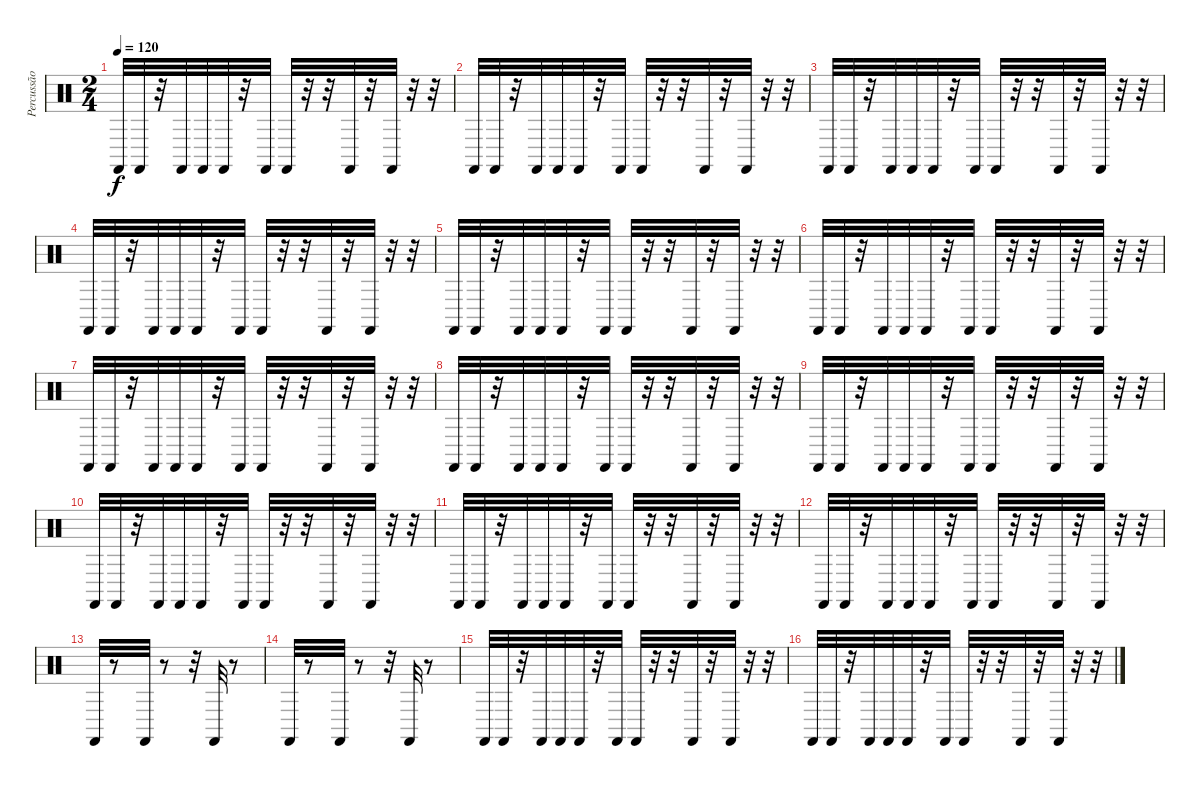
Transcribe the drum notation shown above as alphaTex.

\track ("Percussão" "Percussão") {instrument percussion}
\staff {score}
\articulation defaults
\ts (2 4)
\tempo 120
\clef neutral
\ks c "Castanets (hit)".32{dy f} "Castanets (hit)".32
r.32 "Castanets (hit)".32 "Castanets (hit)".32 "Castanets (hit)".32 r.32 "Castanets (hit)".32 "Castanets (hit)".32 r.32 r.32 "Castanets (hit)".32 r.32 "Castanets (hit)".32 r.32 r.32 |
"Castanets (hit)".32 "Castanets (hit)".32 r.32 "Castanets (hit)".32 "Castanets (hit)".32 "Castanets (hit)".32 r.32 "Castanets (hit)".32 "Castanets (hit)".32 r.32 r.32 "Castanets (hit)".32 r.32 "Castanets (hit)".32 r.32 r.32 |
"Castanets (hit)".32 "Castanets (hit)".32 r.32 "Castanets (hit)".32 "Castanets (hit)".32 "Castanets (hit)".32 r.32 "Castanets (hit)".32 "Castanets (hit)".32 r.32 r.32 "Castanets (hit)".32 r.32 "Castanets (hit)".32 r.32 r.32 |
"Castanets (hit)".32 "Castanets (hit)".32 r.32 "Castanets (hit)".32 "Castanets (hit)".32 "Castanets (hit)".32 r.32 "Castanets (hit)".32 "Castanets (hit)".32 r.32 r.32 "Castanets (hit)".32 r.32 "Castanets (hit)".32 r.32 r.32 |
"Castanets (hit)".32 "Castanets (hit)".32 r.32 "Castanets (hit)".32 "Castanets (hit)".32 "Castanets (hit)".32 r.32 "Castanets (hit)".32 "Castanets (hit)".32 r.32 r.32 "Castanets (hit)".32 r.32 "Castanets (hit)".32 r.32 r.32 |
"Castanets (hit)".32 "Castanets (hit)".32 r.32 "Castanets (hit)".32 "Castanets (hit)".32 "Castanets (hit)".32 r.32 "Castanets (hit)".32 "Castanets (hit)".32 r.32 r.32 "Castanets (hit)".32 r.32 "Castanets (hit)".32 r.32 r.32 |
"Castanets (hit)".32 "Castanets (hit)".32 r.32 "Castanets (hit)".32 "Castanets (hit)".32 "Castanets (hit)".32 r.32 "Castanets (hit)".32 "Castanets (hit)".32 r.32 r.32 "Castanets (hit)".32 r.32 "Castanets (hit)".32 r.32 r.32 |
"Castanets (hit)".32 "Castanets (hit)".32 r.32 "Castanets (hit)".32 "Castanets (hit)".32 "Castanets (hit)".32 r.32 "Castanets (hit)".32 "Castanets (hit)".32 r.32 r.32 "Castanets (hit)".32 r.32 "Castanets (hit)".32 r.32 r.32 |
"Castanets (hit)".32 "Castanets (hit)".32 r.32 "Castanets (hit)".32 "Castanets (hit)".32 "Castanets (hit)".32 r.32 "Castanets (hit)".32 "Castanets (hit)".32 r.32 r.32 "Castanets (hit)".32 r.32 "Castanets (hit)".32 r.32 r.32 |
"Castanets (hit)".32 "Castanets (hit)".32 r.32 "Castanets (hit)".32 "Castanets (hit)".32 "Castanets (hit)".32 r.32 "Castanets (hit)".32 "Castanets (hit)".32 r.32 r.32 "Castanets (hit)".32 r.32 "Castanets (hit)".32 r.32 r.32 |
"Castanets (hit)".32 "Castanets (hit)".32 r.32 "Castanets (hit)".32 "Castanets (hit)".32 "Castanets (hit)".32 r.32 "Castanets (hit)".32 "Castanets (hit)".32 r.32 r.32 "Castanets (hit)".32 r.32 "Castanets (hit)".32 r.32 r.32 |
"Castanets (hit)".32 "Castanets (hit)".32 r.32 "Castanets (hit)".32 "Castanets (hit)".32 "Castanets (hit)".32 r.32 "Castanets (hit)".32 "Castanets (hit)".32 r.32 r.32 "Castanets (hit)".32 r.32 "Castanets (hit)".32 r.32 r.32 |
"Castanets (hit)".32 r.8 "Castanets (hit)".32 r.8 r.32 "Castanets (hit)".32 r.8 |
"Castanets (hit)".32 r.8 "Castanets (hit)".32 r.8 r.32 "Castanets (hit)".32 r.8 |
"Castanets (hit)".32 "Castanets (hit)".32 r.32 "Castanets (hit)".32 "Castanets (hit)".32 "Castanets (hit)".32 r.32 "Castanets (hit)".32 "Castanets (hit)".32 r.32 r.32 "Castanets (hit)".32 r.32 "Castanets (hit)".32 r.32 r.32 |
"Castanets (hit)".32 "Castanets (hit)".32 r.32 "Castanets (hit)".32 "Castanets (hit)".32 "Castanets (hit)".32 r.32 "Castanets (hit)".32 "Castanets (hit)".32 r.32 r.32 "Castanets (hit)".32 r.32 "Castanets (hit)".32 r.32 r.32
